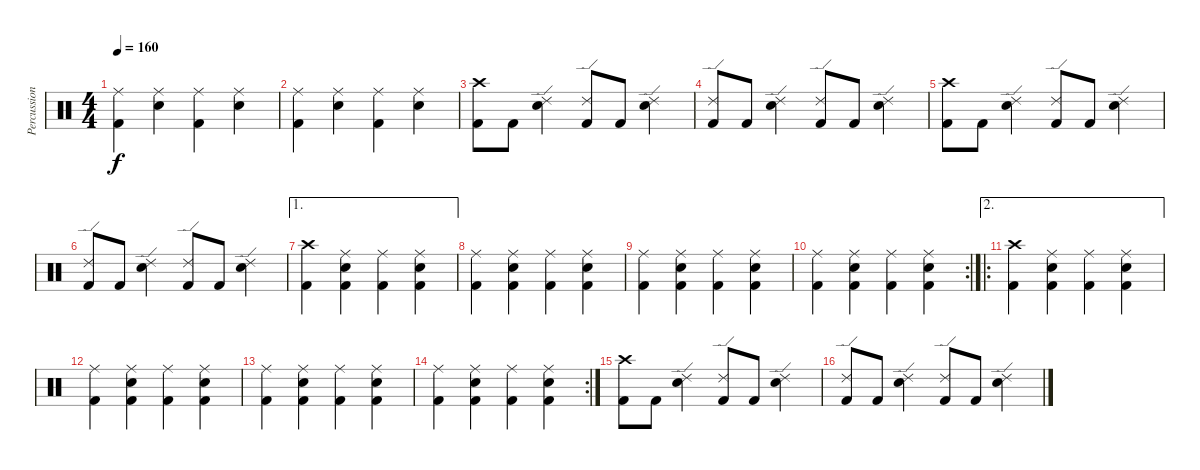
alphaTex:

\track ("Percussion" "Percussion") {instrument percussion}
\staff {score}
\articulation defaults
\ts (4 4)
\tempo 160
\clef neutral
\ks c
("Ride (middle)" "Kick (hit) 2").4{dy f} ("Ride (middle)" "Snare (hit) 2").4 ("Ride (middle)" "Kick (hit) 2").4 ("Ride (middle)" "Snare (hit) 2").4 |
("Ride (middle)" "Kick (hit) 2").4 ("Ride (middle)" "Snare (hit) 2").4 ("Ride (middle)" "Kick (hit) 2").4 ("Ride (middle)" "Snare (hit) 2").4 |
("Crash high (hit)" "Kick (hit) 2").8 "Kick (hit) 2".8 ("Ride (edge) 2" "Snare (hit) 2").4 ("Ride (edge) 2" "Kick (hit) 2").8 "Kick (hit) 2".8 ("Ride (edge) 2" "Snare (hit) 2").4 |
("Ride (edge) 2" "Kick (hit) 2").8 "Kick (hit) 2".8 ("Ride (edge) 2" "Snare (hit) 2").4 ("Ride (edge) 2" "Kick (hit) 2").8 "Kick (hit) 2".8 ("Ride (edge) 2" "Snare (hit) 2").4 |
("Crash high (hit)" "Kick (hit) 2").8 "Kick (hit) 2".8 ("Ride (edge) 2" "Snare (hit) 2").4 ("Ride (edge) 2" "Kick (hit) 2").8 "Kick (hit) 2".8 ("Ride (edge) 2" "Snare (hit) 2").4 |
("Ride (edge) 2" "Kick (hit) 2").8 "Kick (hit) 2".8 ("Ride (edge) 2" "Snare (hit) 2").4 ("Ride (edge) 2" "Kick (hit) 2").8 "Kick (hit) 2".8 ("Ride (edge) 2" "Snare (hit) 2").4 |
\ae 1
("Crash high (hit)" "Kick (hit) 2").4 ("Ride (middle)" "Snare (hit) 2" "Kick (hit) 2").4 ("Ride (middle)" "Kick (hit) 2").4 ("Ride (middle)" "Snare (hit) 2" "Kick (hit) 2").4 |
("Ride (middle)" "Kick (hit) 2").4 ("Ride (middle)" "Snare (hit) 2" "Kick (hit) 2").4 ("Ride (middle)" "Kick (hit) 2").4 ("Ride (middle)" "Snare (hit) 2" "Kick (hit) 2").4 |
("Ride (middle)" "Kick (hit) 2").4 ("Ride (middle)" "Snare (hit) 2" "Kick (hit) 2").4 ("Ride (middle)" "Kick (hit) 2").4 ("Ride (middle)" "Snare (hit) 2" "Kick (hit) 2").4 |
\rc 2
("Ride (middle)" "Kick (hit) 2").4 ("Ride (middle)" "Snare (hit) 2" "Kick (hit) 2").4 ("Ride (middle)" "Kick (hit) 2").4 ("Ride (middle)" "Snare (hit) 2" "Kick (hit) 2").4 |
\ae 2
\ro
("Crash high (hit)" "Kick (hit) 2").4 ("Ride (middle)" "Snare (hit) 2" "Kick (hit) 2").4 ("Ride (middle)" "Kick (hit) 2").4 ("Ride (middle)" "Snare (hit) 2" "Kick (hit) 2").4 |
("Ride (middle)" "Kick (hit) 2").4 ("Ride (middle)" "Snare (hit) 2" "Kick (hit) 2").4 ("Ride (middle)" "Kick (hit) 2").4 ("Ride (middle)" "Snare (hit) 2" "Kick (hit) 2").4 |
("Ride (middle)" "Kick (hit) 2").4 ("Ride (middle)" "Snare (hit) 2" "Kick (hit) 2").4 ("Ride (middle)" "Kick (hit) 2").4 ("Ride (middle)" "Snare (hit) 2" "Kick (hit) 2").4 |
\rc 2
("Ride (middle)" "Kick (hit) 2").4 ("Ride (middle)" "Snare (hit) 2" "Kick (hit) 2").4 ("Ride (middle)" "Kick (hit) 2").4 ("Ride (middle)" "Snare (hit) 2" "Kick (hit) 2").4 |
("Crash high (hit)" "Kick (hit) 2").8 "Kick (hit) 2".8 ("Ride (edge) 2" "Snare (hit) 2").4 ("Ride (edge) 2" "Kick (hit) 2").8 "Kick (hit) 2".8 ("Ride (edge) 2" "Snare (hit) 2").4 |
("Ride (edge) 2" "Kick (hit) 2").8 "Kick (hit) 2".8 ("Ride (edge) 2" "Snare (hit) 2").4 ("Ride (edge) 2" "Kick (hit) 2").8 "Kick (hit) 2".8 ("Ride (edge) 2" "Snare (hit) 2").4
